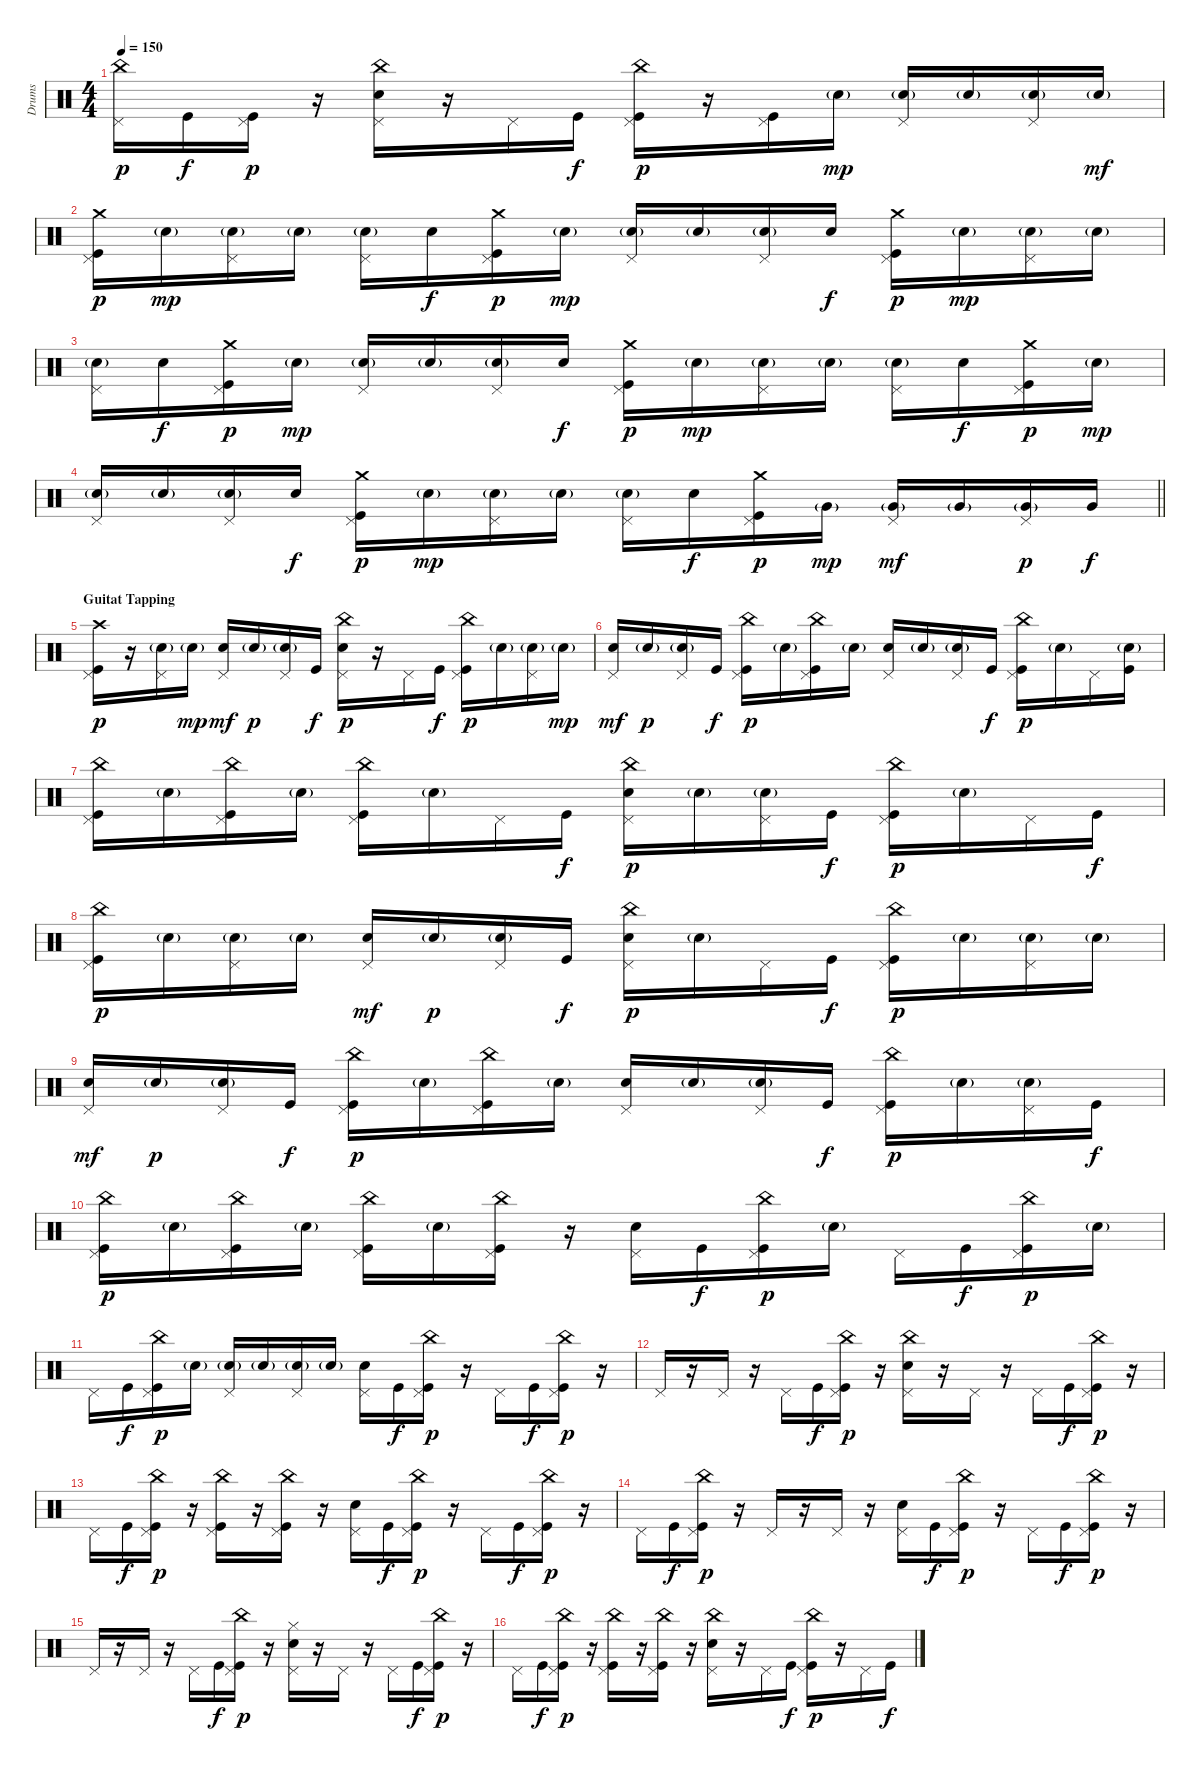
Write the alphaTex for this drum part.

\track ("Drums" "Drums") {instrument percussion}
\staff {score}
\articulation defaults
\ts (4 4)
\tempo 150
\clef neutral
\ks c
("China (hit)" "Pedal Hi-Hat (hit)").16{dy p} "Kick (hit)".16{dy f} ("Pedal Hi-Hat (hit)" "Kick (hit)").16{dy p} r.16 ("China (hit)" "Pedal Hi-Hat (hit)" "Electric Snare (hit)").16 r.16 "Pedal Hi-Hat (hit)".16 "Kick (hit)".16{dy f} ("China (hit)" "Pedal Hi-Hat (hit)" "Kick (hit)").16{dy p} r.16 ("Pedal Hi-Hat (hit)" "Kick (hit)").16 "Electric Snare (hit)"{g}.16{dy mp} ("Pedal Hi-Hat (hit)" "Electric Snare (hit)"{g}).16 "Electric Snare (hit)"{g}.16 ("Pedal Hi-Hat (hit)" "Electric Snare (hit)"{g}).16 "Electric Snare (hit)"{g}.16{dy mf} |
("Crash medium (hit)" "Pedal Hi-Hat (hit)" "Kick (hit)").16{dy p} "Electric Snare (hit)"{g}.16{dy mp} ("Pedal Hi-Hat (hit)" "Electric Snare (hit)"{g}).16 "Electric Snare (hit)"{g}.16 ("Pedal Hi-Hat (hit)" "Electric Snare (hit)"{g}).16 "Electric Snare (hit)".16{dy f} ("Crash medium (hit)" "Pedal Hi-Hat (hit)" "Kick (hit)").16{dy p} "Electric Snare (hit)"{g}.16{dy mp} ("Pedal Hi-Hat (hit)" "Electric Snare (hit)"{g}).16 "Electric Snare (hit)"{g}.16 ("Pedal Hi-Hat (hit)" "Electric Snare (hit)"{g}).16 "Electric Snare (hit)".16{dy f} ("Crash medium (hit)" "Pedal Hi-Hat (hit)" "Kick (hit)").16{dy p} "Electric Snare (hit)"{g}.16{dy mp} ("Pedal Hi-Hat (hit)" "Electric Snare (hit)"{g}).16 "Electric Snare (hit)"{g}.16 |
("Pedal Hi-Hat (hit)" "Electric Snare (hit)"{g}).16 "Electric Snare (hit)".16{dy f} ("Crash medium (hit)" "Pedal Hi-Hat (hit)" "Kick (hit)").16{dy p} "Electric Snare (hit)"{g}.16{dy mp} ("Pedal Hi-Hat (hit)" "Electric Snare (hit)"{g}).16 "Electric Snare (hit)"{g}.16 ("Pedal Hi-Hat (hit)" "Electric Snare (hit)"{g}).16 "Electric Snare (hit)".16{dy f} ("Crash medium (hit)" "Pedal Hi-Hat (hit)" "Kick (hit)").16{dy p} "Electric Snare (hit)"{g}.16{dy mp} ("Pedal Hi-Hat (hit)" "Electric Snare (hit)"{g}).16 "Electric Snare (hit)"{g}.16 ("Pedal Hi-Hat (hit)" "Electric Snare (hit)"{g}).16 "Electric Snare (hit)".16{dy f} ("Crash medium (hit)" "Pedal Hi-Hat (hit)" "Kick (hit)").16{dy p} "Electric Snare (hit)"{g}.16{dy mp} |
\barLineRight lightlight
("Pedal Hi-Hat (hit)" "Electric Snare (hit)"{g}).16 "Electric Snare (hit)"{g}.16 ("Pedal Hi-Hat (hit)" "Electric Snare (hit)"{g}).16 "Electric Snare (hit)".16{dy f} ("Crash medium (hit)" "Pedal Hi-Hat (hit)" "Kick (hit)").16{dy p} "Electric Snare (hit)"{g}.16{dy mp} ("Pedal Hi-Hat (hit)" "Electric Snare (hit)"{g}).16 "Electric Snare (hit)"{g}.16 ("Pedal Hi-Hat (hit)" "Electric Snare (hit)"{g}).16 "Electric Snare (hit)".16{dy f} ("Crash medium (hit)" "Pedal Hi-Hat (hit)" "Kick (hit)").16{dy p} "Very Low Tom (hit)"{g}.16{dy mp} ("Pedal Hi-Hat (hit)" "Very Low Tom (hit)"{g}).16{dy mf} "Very Low Tom (hit)"{g}.16 ("Pedal Hi-Hat (hit)" "Very Low Tom (hit)"{g}).16{dy p} "Very Low Tom (hit)".16{dy f} |
\section ("" "Guitat Tapping")
("Crash high (hit)" "Pedal Hi-Hat (hit)" "Kick (hit)").16{dy p} r.16 ("Pedal Hi-Hat (hit)" "Electric Snare (hit)"{g}).16 "Electric Snare (hit)"{g}.16{dy mp} ("Pedal Hi-Hat (hit)" "Electric Snare (hit)").16{dy mf} "Electric Snare (hit)"{g}.16{dy p} ("Pedal Hi-Hat (hit)" "Electric Snare (hit)"{g}).16 "Kick (hit)".16{dy f} ("China (hit)" "Pedal Hi-Hat (hit)" "Electric Snare (hit)").16{dy p} r.16 "Pedal Hi-Hat (hit)".16 "Kick (hit)".16{dy f} ("China (hit)" "Pedal Hi-Hat (hit)" "Kick (hit)").16{dy p} "Electric Snare (hit)"{g}.16 ("Pedal Hi-Hat (hit)" "Electric Snare (hit)"{g}).16 "Electric Snare (hit)"{g}.16{dy mp} |
("Pedal Hi-Hat (hit)" "Electric Snare (hit)").16{dy mf} "Electric Snare (hit)"{g}.16{dy p} ("Pedal Hi-Hat (hit)" "Electric Snare (hit)"{g}).16 "Kick (hit)".16{dy f} ("China (hit)" "Pedal Hi-Hat (hit)" "Kick (hit)").16{dy p} "Electric Snare (hit)"{g}.16 ("China (hit)" "Pedal Hi-Hat (hit)" "Kick (hit)").16 "Electric Snare (hit)"{g}.16 ("Pedal Hi-Hat (hit)" "Electric Snare (hit)").16 "Electric Snare (hit)"{g}.16 ("Pedal Hi-Hat (hit)" "Electric Snare (hit)"{g}).16 "Kick (hit)".16{dy f} ("China (hit)" "Pedal Hi-Hat (hit)" "Kick (hit)").16{dy p} "Electric Snare (hit)"{g}.16 "Pedal Hi-Hat (hit)".16 ("Electric Snare (hit)"{g} "Kick (hit)").16 |
("China (hit)" "Pedal Hi-Hat (hit)" "Kick (hit)").16 "Electric Snare (hit)"{g}.16 ("China (hit)" "Pedal Hi-Hat (hit)" "Kick (hit)").16 "Electric Snare (hit)"{g}.16 ("China (hit)" "Pedal Hi-Hat (hit)" "Kick (hit)").16 "Electric Snare (hit)"{g}.16 "Pedal Hi-Hat (hit)".16 "Kick (hit)".16{dy f} ("China (hit)" "Pedal Hi-Hat (hit)" "Electric Snare (hit)").16{dy p} "Electric Snare (hit)"{g}.16 ("Pedal Hi-Hat (hit)" "Electric Snare (hit)"{g}).16 "Kick (hit)".16{dy f} ("China (hit)" "Pedal Hi-Hat (hit)" "Kick (hit)").16{dy p} "Electric Snare (hit)"{g}.16 "Pedal Hi-Hat (hit)".16 "Kick (hit)".16{dy f} |
("China (hit)" "Pedal Hi-Hat (hit)" "Kick (hit)").16{dy p} "Electric Snare (hit)"{g}.16 ("Pedal Hi-Hat (hit)" "Electric Snare (hit)"{g}).16 "Electric Snare (hit)"{g}.16 ("Pedal Hi-Hat (hit)" "Electric Snare (hit)").16{dy mf} "Electric Snare (hit)"{g}.16{dy p} ("Pedal Hi-Hat (hit)" "Electric Snare (hit)"{g}).16 "Kick (hit)".16{dy f} ("China (hit)" "Pedal Hi-Hat (hit)" "Electric Snare (hit)").16{dy p} "Electric Snare (hit)"{g}.16 "Pedal Hi-Hat (hit)".16 "Kick (hit)".16{dy f} ("China (hit)" "Pedal Hi-Hat (hit)" "Kick (hit)").16{dy p} "Electric Snare (hit)"{g}.16 ("Pedal Hi-Hat (hit)" "Electric Snare (hit)"{g}).16 "Electric Snare (hit)"{g}.16 |
("Pedal Hi-Hat (hit)" "Electric Snare (hit)").16{dy mf} "Electric Snare (hit)"{g}.16{dy p} ("Pedal Hi-Hat (hit)" "Electric Snare (hit)"{g}).16 "Kick (hit)".16{dy f} ("China (hit)" "Pedal Hi-Hat (hit)" "Kick (hit)").16{dy p} "Electric Snare (hit)"{g}.16 ("China (hit)" "Pedal Hi-Hat (hit)" "Kick (hit)").16 "Electric Snare (hit)"{g}.16 ("Pedal Hi-Hat (hit)" "Electric Snare (hit)").16 "Electric Snare (hit)"{g}.16 ("Pedal Hi-Hat (hit)" "Electric Snare (hit)"{g}).16 "Kick (hit)".16{dy f} ("China (hit)" "Pedal Hi-Hat (hit)" "Kick (hit)").16{dy p} "Electric Snare (hit)"{g}.16 ("Pedal Hi-Hat (hit)" "Electric Snare (hit)"{g}).16 "Kick (hit)".16{dy f} |
("China (hit)" "Pedal Hi-Hat (hit)" "Kick (hit)").16{dy p} "Electric Snare (hit)"{g}.16 ("China (hit)" "Pedal Hi-Hat (hit)" "Kick (hit)").16 "Electric Snare (hit)"{g}.16 ("China (hit)" "Pedal Hi-Hat (hit)" "Kick (hit)").16 "Electric Snare (hit)"{g}.16 ("China (hit)" "Pedal Hi-Hat (hit)" "Kick (hit)").16 r.16 ("Pedal Hi-Hat (hit)" "Electric Snare (hit)").16 "Kick (hit)".16{dy f} ("China (hit)" "Pedal Hi-Hat (hit)" "Kick (hit)").16{dy p} "Electric Snare (hit)"{g}.16 "Pedal Hi-Hat (hit)".16 "Kick (hit)".16{dy f} ("China (hit)" "Pedal Hi-Hat (hit)" "Kick (hit)").16{dy p} "Electric Snare (hit)"{g}.16 |
"Pedal Hi-Hat (hit)".16 "Kick (hit)".16{dy f} ("China (hit)" "Pedal Hi-Hat (hit)" "Kick (hit)").16{dy p} "Electric Snare (hit)"{g}.16 ("Pedal Hi-Hat (hit)" "Electric Snare (hit)"{g}).16 "Electric Snare (hit)"{g}.16 ("Pedal Hi-Hat (hit)" "Electric Snare (hit)"{g}).16 "Electric Snare (hit)"{g}.16 ("Pedal Hi-Hat (hit)" "Electric Snare (hit)").16 "Kick (hit)".16{dy f} ("China (hit)" "Pedal Hi-Hat (hit)" "Kick (hit)").16{dy p} r.16 "Pedal Hi-Hat (hit)".16 "Kick (hit)".16{dy f} ("China (hit)" "Pedal Hi-Hat (hit)" "Kick (hit)").16{dy p} r.16 |
"Pedal Hi-Hat (hit)".16 r.16 "Pedal Hi-Hat (hit)".16 r.16 "Pedal Hi-Hat (hit)".16 "Kick (hit)".16{dy f} ("China (hit)" "Pedal Hi-Hat (hit)" "Kick (hit)").16{dy p} r.16 ("China (hit)" "Pedal Hi-Hat (hit)" "Electric Snare (hit)").16 r.16 "Pedal Hi-Hat (hit)".16 r.16 "Pedal Hi-Hat (hit)".16 "Kick (hit)".16{dy f} ("China (hit)" "Pedal Hi-Hat (hit)" "Kick (hit)").16{dy p} r.16 |
"Pedal Hi-Hat (hit)".16 "Kick (hit)".16{dy f} ("China (hit)" "Pedal Hi-Hat (hit)" "Kick (hit)").16{dy p} r.16 ("China (hit)" "Pedal Hi-Hat (hit)" "Kick (hit)").16 r.16 ("China (hit)" "Pedal Hi-Hat (hit)" "Kick (hit)").16 r.16 ("Pedal Hi-Hat (hit)" "Electric Snare (hit)").16 "Kick (hit)".16{dy f} ("China (hit)" "Pedal Hi-Hat (hit)" "Kick (hit)").16{dy p} r.16 "Pedal Hi-Hat (hit)".16 "Kick (hit)".16{dy f} ("China (hit)" "Pedal Hi-Hat (hit)" "Kick (hit)").16{dy p} r.16 |
"Pedal Hi-Hat (hit)".16 "Kick (hit)".16{dy f} ("China (hit)" "Pedal Hi-Hat (hit)" "Kick (hit)").16{dy p} r.16 "Pedal Hi-Hat (hit)".16 r.16 "Pedal Hi-Hat (hit)".16 r.16 ("Pedal Hi-Hat (hit)" "Electric Snare (hit)").16 "Kick (hit)".16{dy f} ("China (hit)" "Pedal Hi-Hat (hit)" "Kick (hit)").16{dy p} r.16 "Pedal Hi-Hat (hit)".16 "Kick (hit)".16{dy f} ("China (hit)" "Pedal Hi-Hat (hit)" "Kick (hit)").16{dy p} r.16 |
"Pedal Hi-Hat (hit)".16 r.16 "Pedal Hi-Hat (hit)".16 r.16 "Pedal Hi-Hat (hit)".16 "Kick (hit)".16{dy f} ("China (hit)" "Pedal Hi-Hat (hit)" "Kick (hit)").16{dy p} r.16 ("Hi-Hat (closed)" "Pedal Hi-Hat (hit)" "Electric Snare (hit)").16 r.16 "Pedal Hi-Hat (hit)".16 r.16 "Pedal Hi-Hat (hit)".16 "Kick (hit)".16{dy f} ("China (hit)" "Pedal Hi-Hat (hit)" "Kick (hit)").16{dy p} r.16 |
"Pedal Hi-Hat (hit)".16 "Kick (hit)".16{dy f} ("China (hit)" "Pedal Hi-Hat (hit)" "Kick (hit)").16{dy p} r.16 ("China (hit)" "Pedal Hi-Hat (hit)" "Kick (hit)").16 r.16 ("China (hit)" "Pedal Hi-Hat (hit)" "Kick (hit)").16 r.16 ("China (hit)" "Pedal Hi-Hat (hit)" "Electric Snare (hit)").16 r.16 "Pedal Hi-Hat (hit)".16 "Kick (hit)".16{dy f} ("China (hit)" "Pedal Hi-Hat (hit)" "Kick (hit)").16{dy p} r.16 "Pedal Hi-Hat (hit)".16 "Kick (hit)".16{dy f}
